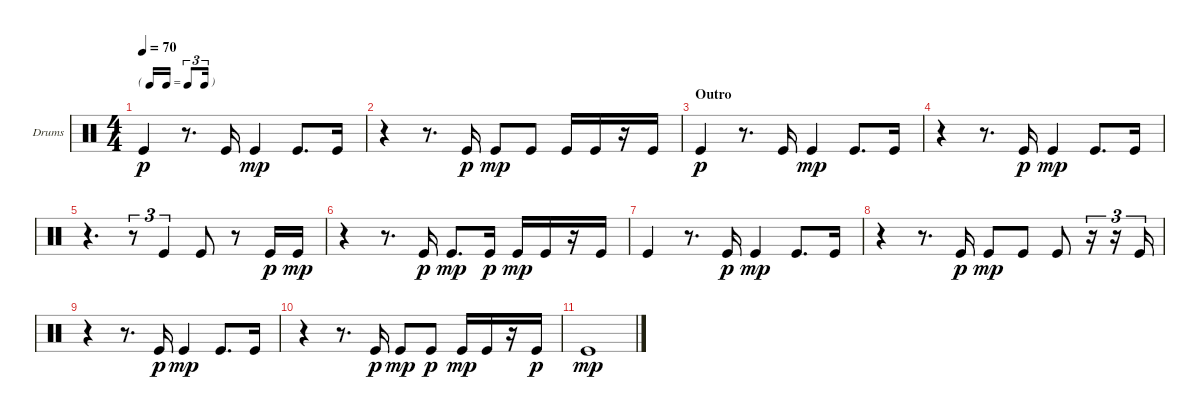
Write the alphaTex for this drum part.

\bracketExtendMode groupsimilarinstruments
\firstSystemTrackNameOrientation horizontal
\otherSystemsTrackNameOrientation horizontal
\track ("Kick" "Drums") {instrument percussion}
\staff {score}
\articulation defaults
\ts (4 4)
\tf triplet16th
\tempo 70
\clef neutral
\ks aminor "Kick (hit)".4{dy p}
r.8{d} "Kick (hit)".16 "Kick (hit)".4{dy mp} "Kick (hit)".8{d} "Kick (hit)".16 |
r.4 r.8{d} "Kick (hit)".16{dy p} "Kick (hit)".8{dy mp} "Kick (hit)".8 "Kick (hit)".16 "Kick (hit)".16 r.16 "Kick (hit)".16 |
\section ("" "Outro")
"Kick (hit)".4{dy p} r.8{d} "Kick (hit)".16 "Kick (hit)".4{dy mp} "Kick (hit)".8{d} "Kick (hit)".16 |
r.4 r.8{d} "Kick (hit)".16{dy p} "Kick (hit)".4{dy mp} "Kick (hit)".8{d} "Kick (hit)".16 |
r.4{d} r.8{tu (3 2)} "Kick (hit)".4{tu (3 2)} "Kick (hit)".8 r.8 "Kick (hit)".16{dy p} "Kick (hit)".16{dy mp} |
r.4 r.8{d} "Kick (hit)".16{dy p} "Kick (hit)".8{d dy mp} "Kick (hit)".16{dy p} "Kick (hit)".16{dy mp} "Kick (hit)".16 r.16 "Kick (hit)".16 |
"Kick (hit)".4 r.8{d} "Kick (hit)".16{dy p} "Kick (hit)".4{dy mp} "Kick (hit)".8{d} "Kick (hit)".16 |
r.4 r.8{d} "Kick (hit)".16{dy p} "Kick (hit)".8{dy mp} "Kick (hit)".8 "Kick (hit)".8 r.16{tu (3 2)} r.16{tu (3 2)} "Kick (hit)".16{tu (3 2)} |
r.4 r.8{d} "Kick (hit)".16{dy p} "Kick (hit)".4{dy mp} "Kick (hit)".8{d} "Kick (hit)".16 |
r.4 r.8{d} "Kick (hit)".16{dy p} "Kick (hit)".8{dy mp} "Kick (hit)".8{dy p} "Kick (hit)".16{dy mp} "Kick (hit)".16 r.16 "Kick (hit)".16{dy p} |
"Kick (hit)".1{dy mp}
